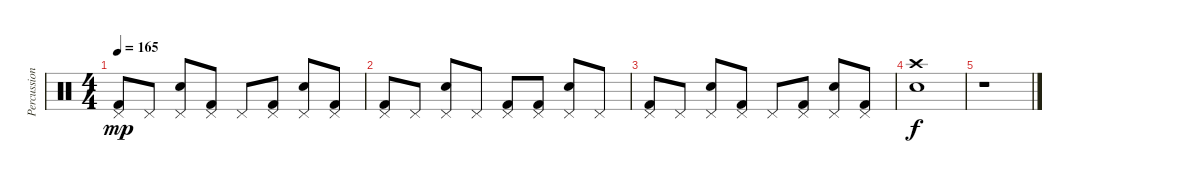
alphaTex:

\track ("Percussion" "Percussion") {instrument percussion}
\staff {score}
\articulation defaults
\ts (4 4)
\tempo 165
\clef neutral
\ks c
("Pedal Hi-Hat (hit)" "Kick (hit) 2").8{dy mp} "Pedal Hi-Hat (hit)".8 ("Pedal Hi-Hat (hit)" "Snare (hit) 2").8 ("Pedal Hi-Hat (hit)" "Kick (hit) 2").8 "Pedal Hi-Hat (hit)".8 ("Pedal Hi-Hat (hit)" "Kick (hit) 2").8 ("Pedal Hi-Hat (hit)" "Snare (hit) 2").8 ("Pedal Hi-Hat (hit)" "Kick (hit) 2").8 |
("Pedal Hi-Hat (hit)" "Kick (hit) 2").8 "Pedal Hi-Hat (hit)".8 ("Pedal Hi-Hat (hit)" "Snare (hit) 2").8 "Pedal Hi-Hat (hit)".8 ("Pedal Hi-Hat (hit)" "Kick (hit) 2").8 ("Pedal Hi-Hat (hit)" "Kick (hit) 2").8 ("Pedal Hi-Hat (hit)" "Snare (hit) 2").8 "Pedal Hi-Hat (hit)".8 |
("Pedal Hi-Hat (hit)" "Kick (hit) 2").8 "Pedal Hi-Hat (hit)".8 ("Pedal Hi-Hat (hit)" "Snare (hit) 2").8 ("Pedal Hi-Hat (hit)" "Kick (hit) 2").8 "Pedal Hi-Hat (hit)".8 ("Pedal Hi-Hat (hit)" "Kick (hit) 2").8 ("Pedal Hi-Hat (hit)" "Snare (hit) 2").8 ("Pedal Hi-Hat (hit)" "Kick (hit) 2").8 |
("Crash high (hit)" "Snare (hit) 2").1{dy f} |
r.1
